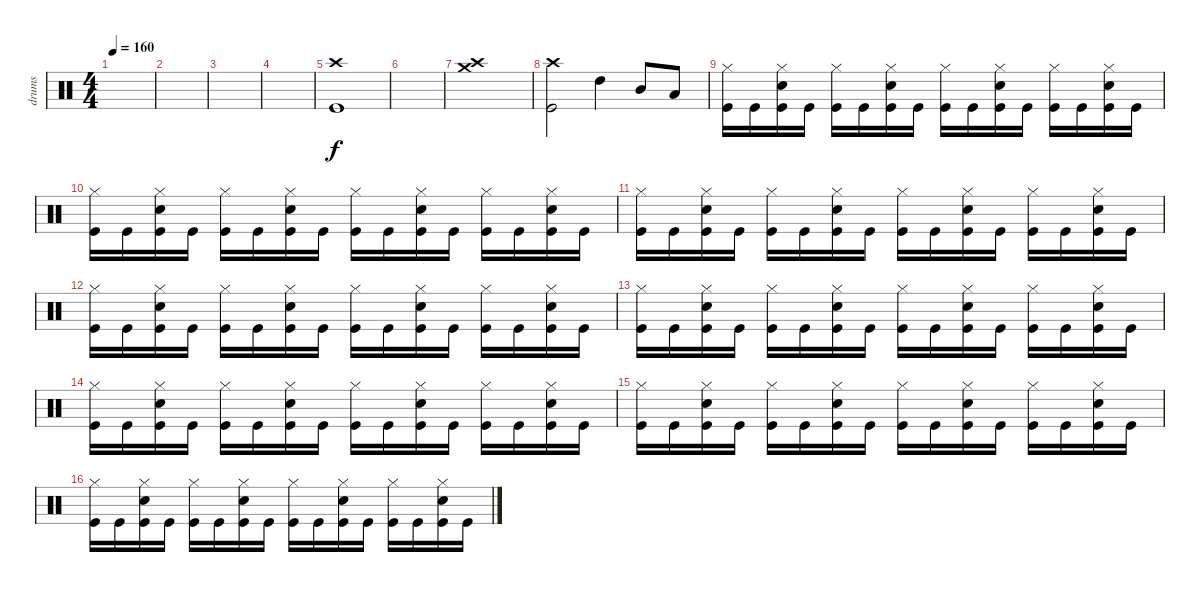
\track ("drums" "drums") {instrument percussion}
\staff {score}
\articulation defaults
\ts (4 4)
\tempo 160
\clef neutral
\ks c
|
|
|
|
("Kick (hit)" "Crash high (hit)").1 |
|
("Crash medium (hit)" "Crash high (hit)").1 |
("Kick (hit)" "Crash high (hit)").2 "High Tom (hit)".4 "Mid Tom (hit)".8 "Low Floor Tom (hit)".8 |
("Kick (hit)" "Hi-Hat (closed)").16 "Kick (hit)".16 ("Kick (hit)" "Hi-Hat (closed)" "Snare (hit) 2").16 "Kick (hit)".16 ("Kick (hit)" "Hi-Hat (closed)").16 "Kick (hit)".16 ("Kick (hit)" "Hi-Hat (closed)" "Snare (hit) 2").16 "Kick (hit)".16 ("Kick (hit)" "Hi-Hat (closed)").16 "Kick (hit)".16 ("Kick (hit)" "Hi-Hat (closed)" "Snare (hit) 2").16 "Kick (hit)".16 ("Kick (hit)" "Hi-Hat (closed)").16 "Kick (hit)".16 ("Kick (hit)" "Hi-Hat (closed)" "Snare (hit) 2").16 "Kick (hit)".16 |
("Kick (hit)" "Hi-Hat (closed)").16 "Kick (hit)".16 ("Kick (hit)" "Hi-Hat (closed)" "Snare (hit) 2").16 "Kick (hit)".16 ("Kick (hit)" "Hi-Hat (closed)").16 "Kick (hit)".16 ("Kick (hit)" "Hi-Hat (closed)" "Snare (hit) 2").16 "Kick (hit)".16 ("Kick (hit)" "Hi-Hat (closed)").16 "Kick (hit)".16 ("Kick (hit)" "Hi-Hat (closed)" "Snare (hit) 2").16 "Kick (hit)".16 ("Kick (hit)" "Hi-Hat (closed)").16 "Kick (hit)".16 ("Kick (hit)" "Hi-Hat (closed)" "Snare (hit) 2").16 "Kick (hit)".16 |
("Kick (hit)" "Hi-Hat (closed)").16 "Kick (hit)".16 ("Kick (hit)" "Hi-Hat (closed)" "Snare (hit) 2").16 "Kick (hit)".16 ("Kick (hit)" "Hi-Hat (closed)").16 "Kick (hit)".16 ("Kick (hit)" "Hi-Hat (closed)" "Snare (hit) 2").16 "Kick (hit)".16 ("Kick (hit)" "Hi-Hat (closed)").16 "Kick (hit)".16 ("Kick (hit)" "Hi-Hat (closed)" "Snare (hit) 2").16 "Kick (hit)".16 ("Kick (hit)" "Hi-Hat (closed)").16 "Kick (hit)".16 ("Kick (hit)" "Hi-Hat (closed)" "Snare (hit) 2").16 "Kick (hit)".16 |
("Kick (hit)" "Hi-Hat (closed)").16 "Kick (hit)".16 ("Kick (hit)" "Hi-Hat (closed)" "Snare (hit) 2").16 "Kick (hit)".16 ("Kick (hit)" "Hi-Hat (closed)").16 "Kick (hit)".16 ("Kick (hit)" "Hi-Hat (closed)" "Snare (hit) 2").16 "Kick (hit)".16 ("Kick (hit)" "Hi-Hat (closed)").16 "Kick (hit)".16 ("Kick (hit)" "Hi-Hat (closed)" "Snare (hit) 2").16 "Kick (hit)".16 ("Kick (hit)" "Hi-Hat (closed)").16 "Kick (hit)".16 ("Kick (hit)" "Hi-Hat (closed)" "Snare (hit) 2").16 "Kick (hit)".16 |
("Kick (hit)" "Hi-Hat (closed)").16 "Kick (hit)".16 ("Kick (hit)" "Hi-Hat (closed)" "Snare (hit) 2").16 "Kick (hit)".16 ("Kick (hit)" "Hi-Hat (closed)").16 "Kick (hit)".16 ("Kick (hit)" "Hi-Hat (closed)" "Snare (hit) 2").16 "Kick (hit)".16 ("Kick (hit)" "Hi-Hat (closed)").16 "Kick (hit)".16 ("Kick (hit)" "Hi-Hat (closed)" "Snare (hit) 2").16 "Kick (hit)".16 ("Kick (hit)" "Hi-Hat (closed)").16 "Kick (hit)".16 ("Kick (hit)" "Hi-Hat (closed)" "Snare (hit) 2").16 "Kick (hit)".16 |
("Kick (hit)" "Hi-Hat (closed)").16 "Kick (hit)".16 ("Kick (hit)" "Hi-Hat (closed)" "Snare (hit) 2").16 "Kick (hit)".16 ("Kick (hit)" "Hi-Hat (closed)").16 "Kick (hit)".16 ("Kick (hit)" "Hi-Hat (closed)" "Snare (hit) 2").16 "Kick (hit)".16 ("Kick (hit)" "Hi-Hat (closed)").16 "Kick (hit)".16 ("Kick (hit)" "Hi-Hat (closed)" "Snare (hit) 2").16 "Kick (hit)".16 ("Kick (hit)" "Hi-Hat (closed)").16 "Kick (hit)".16 ("Kick (hit)" "Hi-Hat (closed)" "Snare (hit) 2").16 "Kick (hit)".16 |
("Kick (hit)" "Hi-Hat (closed)").16 "Kick (hit)".16 ("Kick (hit)" "Hi-Hat (closed)" "Snare (hit) 2").16 "Kick (hit)".16 ("Kick (hit)" "Hi-Hat (closed)").16 "Kick (hit)".16 ("Kick (hit)" "Hi-Hat (closed)" "Snare (hit) 2").16 "Kick (hit)".16 ("Kick (hit)" "Hi-Hat (closed)").16 "Kick (hit)".16 ("Kick (hit)" "Hi-Hat (closed)" "Snare (hit) 2").16 "Kick (hit)".16 ("Kick (hit)" "Hi-Hat (closed)").16 "Kick (hit)".16 ("Kick (hit)" "Hi-Hat (closed)" "Snare (hit) 2").16 "Kick (hit)".16 |
("Kick (hit)" "Hi-Hat (closed)").16 "Kick (hit)".16 ("Kick (hit)" "Hi-Hat (closed)" "Snare (hit) 2").16 "Kick (hit)".16 ("Kick (hit)" "Hi-Hat (closed)").16 "Kick (hit)".16 ("Kick (hit)" "Hi-Hat (closed)" "Snare (hit) 2").16 "Kick (hit)".16 ("Kick (hit)" "Hi-Hat (closed)").16 "Kick (hit)".16 ("Kick (hit)" "Hi-Hat (closed)" "Snare (hit) 2").16 "Kick (hit)".16 ("Kick (hit)" "Hi-Hat (closed)").16 "Kick (hit)".16 ("Kick (hit)" "Hi-Hat (closed)" "Snare (hit) 2").16 "Kick (hit)".16
